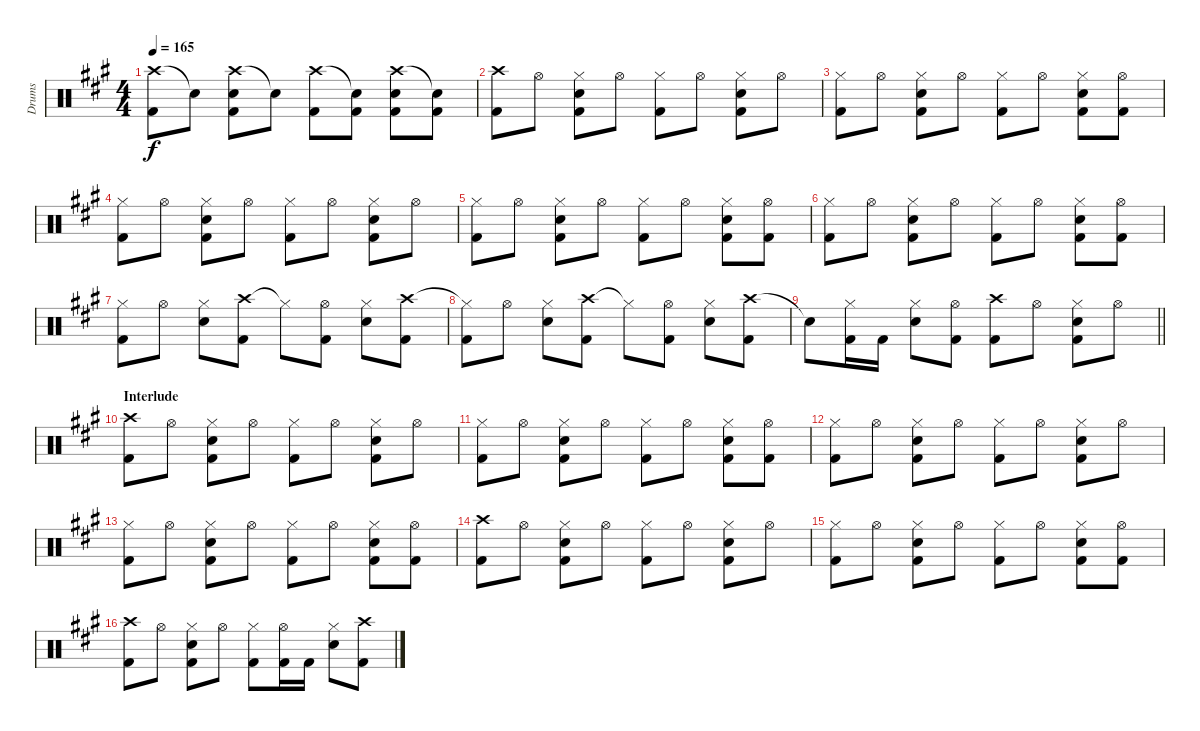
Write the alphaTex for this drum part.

\track ("Drums" "Drums") {instrument percussion}
\staff {score}
\articulation defaults
\ts (4 4)
\tempo 165
\clef neutral
\ks a
("Crash high (hit)" "Kick (hit) 2").8{dy f} "Snare (hit)"{t}.8 ("Crash high (hit)" "Snare (hit) 2" "Kick (hit) 2").8 "Snare (hit)"{t}.8 ("Crash high (hit)" "Kick (hit) 2").8 ("Snare (hit)"{t} "Kick (hit) 2").8 ("Crash high (hit)" "Snare (hit) 2" "Kick (hit) 2").8 ("Snare (hit)"{t} "Kick (hit) 2").8 |
("Crash high (hit)" "Kick (hit) 2").8 "Hi-Hat (open)".8 ("Hi-Hat (closed)" "Snare (hit) 2" "Kick (hit) 2").8 "Hi-Hat (open)".8 ("Hi-Hat (closed)" "Kick (hit) 2").8 "Hi-Hat (open)".8 ("Hi-Hat (closed)" "Snare (hit) 2" "Kick (hit) 2").8 "Hi-Hat (open)".8 |
("Hi-Hat (closed)" "Kick (hit) 2").8 "Hi-Hat (open)".8 ("Hi-Hat (closed)" "Snare (hit) 2" "Kick (hit) 2").8 "Hi-Hat (open)".8 ("Hi-Hat (closed)" "Kick (hit) 2").8 "Hi-Hat (open)".8 ("Hi-Hat (closed)" "Snare (hit) 2" "Kick (hit) 2").8 ("Hi-Hat (open)" "Kick (hit) 2").8 |
("Hi-Hat (closed)" "Kick (hit) 2").8 "Hi-Hat (open)".8 ("Hi-Hat (closed)" "Snare (hit) 2" "Kick (hit) 2").8 "Hi-Hat (open)".8 ("Hi-Hat (closed)" "Kick (hit) 2").8 "Hi-Hat (open)".8 ("Hi-Hat (closed)" "Snare (hit) 2" "Kick (hit) 2").8 "Hi-Hat (open)".8 |
("Hi-Hat (closed)" "Kick (hit) 2").8 "Hi-Hat (open)".8 ("Hi-Hat (closed)" "Snare (hit) 2" "Kick (hit) 2").8 "Hi-Hat (open)".8 ("Hi-Hat (closed)" "Kick (hit) 2").8 "Hi-Hat (open)".8 ("Hi-Hat (closed)" "Snare (hit) 2" "Kick (hit) 2").8 ("Hi-Hat (open)" "Kick (hit) 2").8 |
("Hi-Hat (closed)" "Kick (hit) 2").8 "Hi-Hat (open)".8 ("Hi-Hat (closed)" "Snare (hit) 2" "Kick (hit) 2").8 "Hi-Hat (open)".8 ("Hi-Hat (closed)" "Kick (hit) 2").8 "Hi-Hat (open)".8 ("Hi-Hat (closed)" "Snare (hit) 2" "Kick (hit) 2").8 ("Hi-Hat (open)" "Kick (hit) 2").8 |
("Hi-Hat (closed)" "Kick (hit) 2").8 "Hi-Hat (open)".8 ("Hi-Hat (closed)" "Snare (hit) 2").8 ("Crash high (hit)" "Kick (hit) 2").8 "Hi-Hat (closed)"{t}.8 ("Hi-Hat (open)" "Kick (hit) 2").8 ("Hi-Hat (closed)" "Snare (hit) 2").8 ("Crash high (hit)" "Kick (hit) 2").8 |
("Hi-Hat (closed)"{t} "Kick (hit) 2").8 "Hi-Hat (open)".8 ("Hi-Hat (closed)" "Snare (hit) 2").8 ("Crash high (hit)" "Kick (hit) 2").8 "Hi-Hat (closed)"{t}.8 ("Hi-Hat (open)" "Kick (hit) 2").8 ("Hi-Hat (closed)" "Snare (hit) 2").8 ("Crash high (hit)" "Kick (hit) 2").8 |
\barLineRight lightlight "Snare (hit)"{t}.8
("Hi-Hat (closed)" "Kick (hit) 2").16 "Kick (hit) 2".16 ("Hi-Hat (closed)" "Snare (hit) 2").8 ("Hi-Hat (open)" "Kick (hit) 2").8 ("Crash high (hit)" "Kick (hit) 2").8 "Hi-Hat (open)".8 ("Hi-Hat (closed)" "Snare (hit) 2" "Kick (hit) 2").8 "Hi-Hat (open)".8 |
\section ("" "Interlude")
("Crash high (hit)" "Kick (hit) 2").8 "Hi-Hat (open)".8 ("Hi-Hat (closed)" "Snare (hit) 2" "Kick (hit) 2").8 "Hi-Hat (open)".8 ("Hi-Hat (closed)" "Kick (hit) 2").8 "Hi-Hat (open)".8 ("Hi-Hat (closed)" "Snare (hit) 2" "Kick (hit) 2").8 "Hi-Hat (open)".8 |
("Hi-Hat (closed)" "Kick (hit) 2").8 "Hi-Hat (open)".8 ("Hi-Hat (closed)" "Snare (hit) 2" "Kick (hit) 2").8 "Hi-Hat (open)".8 ("Hi-Hat (closed)" "Kick (hit) 2").8 "Hi-Hat (open)".8 ("Hi-Hat (closed)" "Snare (hit) 2" "Kick (hit) 2").8 ("Hi-Hat (open)" "Kick (hit) 2").8 |
("Hi-Hat (closed)" "Kick (hit) 2").8 "Hi-Hat (open)".8 ("Hi-Hat (closed)" "Snare (hit) 2" "Kick (hit) 2").8 "Hi-Hat (open)".8 ("Hi-Hat (closed)" "Kick (hit) 2").8 "Hi-Hat (open)".8 ("Hi-Hat (closed)" "Snare (hit) 2" "Kick (hit) 2").8 "Hi-Hat (open)".8 |
("Hi-Hat (closed)" "Kick (hit) 2").8 "Hi-Hat (open)".8 ("Hi-Hat (closed)" "Snare (hit) 2" "Kick (hit) 2").8 "Hi-Hat (open)".8 ("Hi-Hat (closed)" "Kick (hit) 2").8 "Hi-Hat (open)".8 ("Hi-Hat (closed)" "Snare (hit) 2" "Kick (hit) 2").8 ("Hi-Hat (open)" "Kick (hit) 2").8 |
("Crash high (hit)" "Kick (hit) 2").8 "Hi-Hat (open)".8 ("Hi-Hat (closed)" "Snare (hit) 2" "Kick (hit) 2").8 "Hi-Hat (open)".8 ("Hi-Hat (closed)" "Kick (hit) 2").8 "Hi-Hat (open)".8 ("Hi-Hat (closed)" "Snare (hit) 2" "Kick (hit) 2").8 "Hi-Hat (open)".8 |
("Hi-Hat (closed)" "Kick (hit) 2").8 "Hi-Hat (open)".8 ("Hi-Hat (closed)" "Snare (hit) 2" "Kick (hit) 2").8 "Hi-Hat (open)".8 ("Hi-Hat (closed)" "Kick (hit) 2").8 "Hi-Hat (open)".8 ("Hi-Hat (closed)" "Snare (hit) 2" "Kick (hit) 2").8 ("Hi-Hat (open)" "Kick (hit) 2").8 |
("Crash high (hit)" "Kick (hit) 2").8 "Hi-Hat (open)".8 ("Hi-Hat (closed)" "Snare (hit) 2" "Kick (hit) 2").8 "Hi-Hat (open)".8 ("Hi-Hat (closed)" "Kick (hit) 2").8 ("Hi-Hat (open)" "Kick (hit) 2").16 "Kick (hit) 2".16 ("Hi-Hat (closed)" "Snare (hit) 2").8 ("Crash high (hit)" "Kick (hit) 2").8
